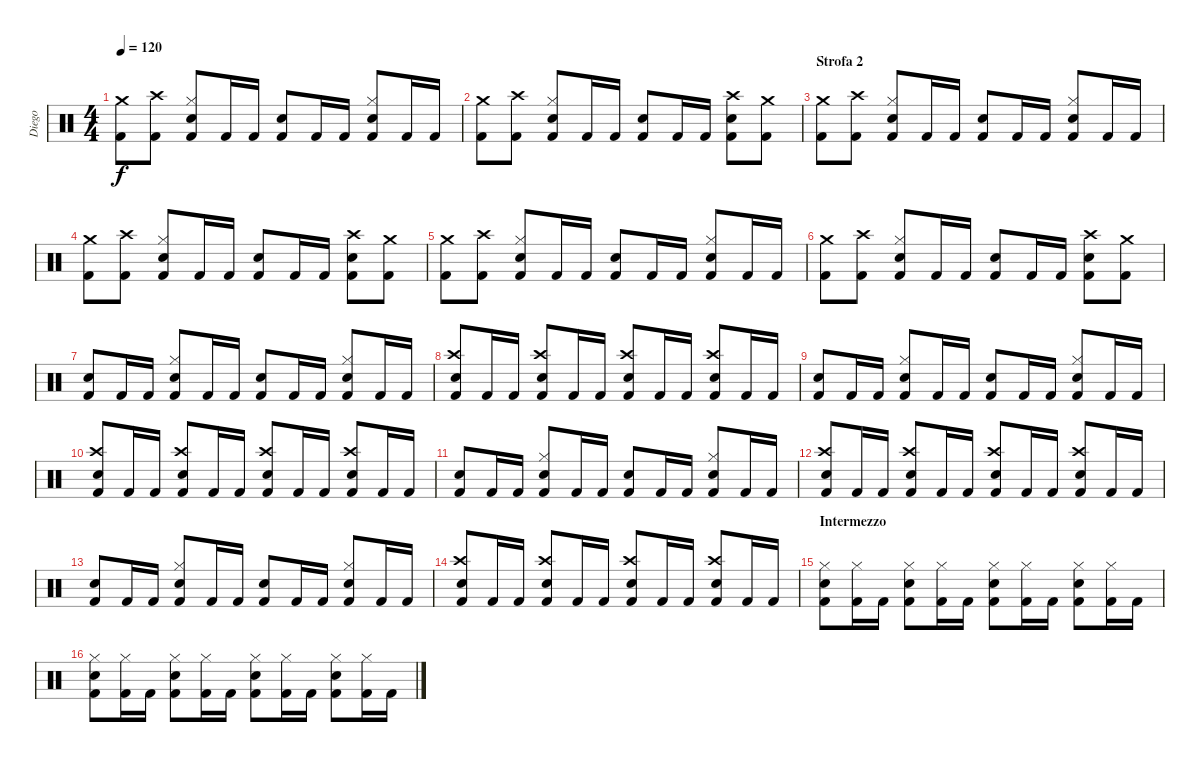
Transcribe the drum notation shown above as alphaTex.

\track ("Diego" "Diego") {instrument percussion}
\staff {score}
\articulation defaults
\ts (4 4)
\tempo 120
\clef neutral
\ks c
("Crash medium (hit)" "Kick (hit) 2").8{dy f} ("Crash high (hit)" "Kick (hit) 2").8 ("Hi-Hat (closed)" "Snare (hit) 2" "Kick (hit) 2").8 "Kick (hit) 2".16 "Kick (hit) 2".16 ("Snare (hit) 2" "Kick (hit) 2").8 "Kick (hit) 2".16 "Kick (hit) 2".16 ("Hi-Hat (closed)" "Snare (hit) 2" "Kick (hit) 2").8 "Kick (hit) 2".16 "Kick (hit) 2".16 |
("Crash medium (hit)" "Kick (hit) 2").8 ("Crash high (hit)" "Kick (hit) 2").8 ("Hi-Hat (closed)" "Snare (hit) 2" "Kick (hit) 2").8 "Kick (hit) 2".16 "Kick (hit) 2".16 ("Snare (hit) 2" "Kick (hit) 2").8 "Kick (hit) 2".16 "Kick (hit) 2".16 ("Crash high (hit)" "Snare (hit) 2" "Kick (hit) 2").8 ("Crash medium (hit)" "Kick (hit) 2").8 |
\section ("" "Strofa 2")
("Crash medium (hit)" "Kick (hit) 2").8 ("Crash high (hit)" "Kick (hit) 2").8 ("Hi-Hat (closed)" "Snare (hit) 2" "Kick (hit) 2").8 "Kick (hit) 2".16 "Kick (hit) 2".16 ("Snare (hit) 2" "Kick (hit) 2").8 "Kick (hit) 2".16 "Kick (hit) 2".16 ("Hi-Hat (closed)" "Snare (hit) 2" "Kick (hit) 2").8 "Kick (hit) 2".16 "Kick (hit) 2".16 |
("Crash medium (hit)" "Kick (hit) 2").8 ("Crash high (hit)" "Kick (hit) 2").8 ("Hi-Hat (closed)" "Snare (hit) 2" "Kick (hit) 2").8 "Kick (hit) 2".16 "Kick (hit) 2".16 ("Snare (hit) 2" "Kick (hit) 2").8 "Kick (hit) 2".16 "Kick (hit) 2".16 ("Crash high (hit)" "Snare (hit) 2" "Kick (hit) 2").8 ("Crash medium (hit)" "Kick (hit) 2").8 |
("Crash medium (hit)" "Kick (hit) 2").8 ("Crash high (hit)" "Kick (hit) 2").8 ("Hi-Hat (closed)" "Snare (hit) 2" "Kick (hit) 2").8 "Kick (hit) 2".16 "Kick (hit) 2".16 ("Snare (hit) 2" "Kick (hit) 2").8 "Kick (hit) 2".16 "Kick (hit) 2".16 ("Hi-Hat (closed)" "Snare (hit) 2" "Kick (hit) 2").8 "Kick (hit) 2".16 "Kick (hit) 2".16 |
("Crash medium (hit)" "Kick (hit) 2").8 ("Crash high (hit)" "Kick (hit) 2").8 ("Hi-Hat (closed)" "Snare (hit) 2" "Kick (hit) 2").8 "Kick (hit) 2".16 "Kick (hit) 2".16 ("Snare (hit) 2" "Kick (hit) 2").8 "Kick (hit) 2".16 "Kick (hit) 2".16 ("Crash high (hit)" "Snare (hit) 2" "Kick (hit) 2").8 ("Crash medium (hit)" "Kick (hit) 2").8 |
("Snare (hit) 2" "Kick (hit) 2").8 "Kick (hit) 2".16 "Kick (hit) 2".16 ("Hi-Hat (closed)" "Snare (hit) 2" "Kick (hit) 2").8 "Kick (hit) 2".16 "Kick (hit) 2".16 ("Snare (hit) 2" "Kick (hit) 2").8 "Kick (hit) 2".16 "Kick (hit) 2".16 ("Hi-Hat (closed)" "Snare (hit) 2" "Kick (hit) 2").8 "Kick (hit) 2".16 "Kick (hit) 2".16 |
("Crash high (hit)" "Snare (hit) 2" "Kick (hit) 2").8 "Kick (hit) 2".16 "Kick (hit) 2".16 ("Crash high (hit)" "Snare (hit) 2" "Kick (hit) 2").8 "Kick (hit) 2".16 "Kick (hit) 2".16 ("Crash high (hit)" "Snare (hit) 2" "Kick (hit) 2").8 "Kick (hit) 2".16 "Kick (hit) 2".16 ("Crash high (hit)" "Snare (hit) 2" "Kick (hit) 2").8 "Kick (hit) 2".16 "Kick (hit) 2".16 |
("Snare (hit) 2" "Kick (hit) 2").8 "Kick (hit) 2".16 "Kick (hit) 2".16 ("Hi-Hat (closed)" "Snare (hit) 2" "Kick (hit) 2").8 "Kick (hit) 2".16 "Kick (hit) 2".16 ("Snare (hit) 2" "Kick (hit) 2").8 "Kick (hit) 2".16 "Kick (hit) 2".16 ("Hi-Hat (closed)" "Snare (hit) 2" "Kick (hit) 2").8 "Kick (hit) 2".16 "Kick (hit) 2".16 |
("Crash high (hit)" "Snare (hit) 2" "Kick (hit) 2").8 "Kick (hit) 2".16 "Kick (hit) 2".16 ("Crash high (hit)" "Snare (hit) 2" "Kick (hit) 2").8 "Kick (hit) 2".16 "Kick (hit) 2".16 ("Crash high (hit)" "Snare (hit) 2" "Kick (hit) 2").8 "Kick (hit) 2".16 "Kick (hit) 2".16 ("Crash high (hit)" "Snare (hit) 2" "Kick (hit) 2").8 "Kick (hit) 2".16 "Kick (hit) 2".16 |
("Snare (hit) 2" "Kick (hit) 2").8 "Kick (hit) 2".16 "Kick (hit) 2".16 ("Hi-Hat (closed)" "Snare (hit) 2" "Kick (hit) 2").8 "Kick (hit) 2".16 "Kick (hit) 2".16 ("Snare (hit) 2" "Kick (hit) 2").8 "Kick (hit) 2".16 "Kick (hit) 2".16 ("Hi-Hat (closed)" "Snare (hit) 2" "Kick (hit) 2").8 "Kick (hit) 2".16 "Kick (hit) 2".16 |
("Crash high (hit)" "Snare (hit) 2" "Kick (hit) 2").8 "Kick (hit) 2".16 "Kick (hit) 2".16 ("Crash high (hit)" "Snare (hit) 2" "Kick (hit) 2").8 "Kick (hit) 2".16 "Kick (hit) 2".16 ("Crash high (hit)" "Snare (hit) 2" "Kick (hit) 2").8 "Kick (hit) 2".16 "Kick (hit) 2".16 ("Crash high (hit)" "Snare (hit) 2" "Kick (hit) 2").8 "Kick (hit) 2".16 "Kick (hit) 2".16 |
("Snare (hit) 2" "Kick (hit) 2").8 "Kick (hit) 2".16 "Kick (hit) 2".16 ("Hi-Hat (closed)" "Snare (hit) 2" "Kick (hit) 2").8 "Kick (hit) 2".16 "Kick (hit) 2".16 ("Snare (hit) 2" "Kick (hit) 2").8 "Kick (hit) 2".16 "Kick (hit) 2".16 ("Hi-Hat (closed)" "Snare (hit) 2" "Kick (hit) 2").8 "Kick (hit) 2".16 "Kick (hit) 2".16 |
("Crash high (hit)" "Snare (hit) 2" "Kick (hit) 2").8 "Kick (hit) 2".16 "Kick (hit) 2".16 ("Crash high (hit)" "Snare (hit) 2" "Kick (hit) 2").8 "Kick (hit) 2".16 "Kick (hit) 2".16 ("Crash high (hit)" "Snare (hit) 2" "Kick (hit) 2").8 "Kick (hit) 2".16 "Kick (hit) 2".16 ("Crash high (hit)" "Snare (hit) 2" "Kick (hit) 2").8 "Kick (hit) 2".16 "Kick (hit) 2".16 |
\section ("" "Intermezzo")
("Hi-Hat (closed)" "Snare (hit) 2" "Kick (hit) 2").8 ("Hi-Hat (closed)" "Kick (hit) 2").16 "Kick (hit) 2".16 ("Hi-Hat (closed)" "Snare (hit) 2" "Kick (hit) 2").8 ("Hi-Hat (closed)" "Kick (hit) 2").16 "Kick (hit) 2".16 ("Hi-Hat (closed)" "Snare (hit) 2" "Kick (hit) 2").8 ("Hi-Hat (closed)" "Kick (hit) 2").16 "Kick (hit) 2".16 ("Hi-Hat (closed)" "Snare (hit) 2" "Kick (hit) 2").8 ("Hi-Hat (closed)" "Kick (hit) 2").16 "Kick (hit) 2".16 |
("Hi-Hat (closed)" "Snare (hit) 2" "Kick (hit) 2").8 ("Hi-Hat (closed)" "Kick (hit) 2").16 "Kick (hit) 2".16 ("Hi-Hat (closed)" "Snare (hit) 2" "Kick (hit) 2").8 ("Hi-Hat (closed)" "Kick (hit) 2").16 "Kick (hit) 2".16 ("Hi-Hat (closed)" "Snare (hit) 2" "Kick (hit) 2").8 ("Hi-Hat (closed)" "Kick (hit) 2").16 "Kick (hit) 2".16 ("Hi-Hat (closed)" "Snare (hit) 2" "Kick (hit) 2").8 ("Hi-Hat (closed)" "Kick (hit) 2").16 "Kick (hit) 2".16
